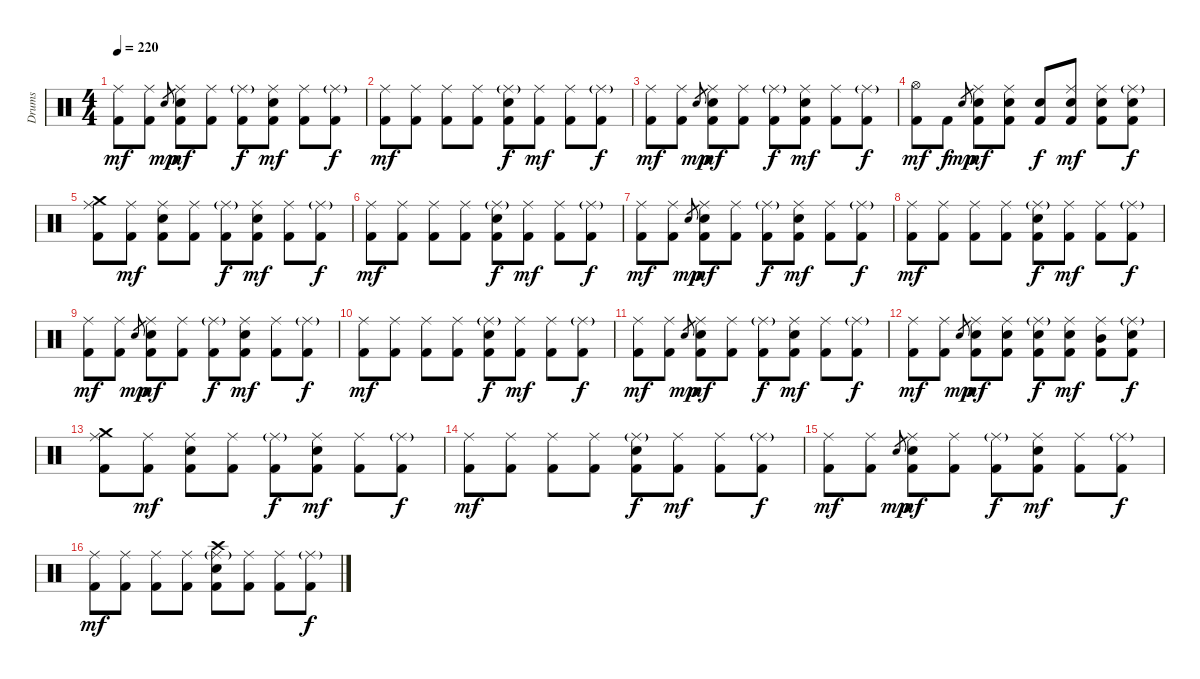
\bracketExtendMode groupsimilarinstruments
\otherSystemsTrackNameOrientation horizontal
\track ("Drumkit" "Drums") {instrument percussion}
\staff {score}
\articulation defaults
\ts (4 4)
\tempo 220
\clef neutral
\ks c
("Ride (middle)" "Kick (hit) 2").8{dy mf beam Down} ("Ride (middle)" "Kick (hit) 2").8{beam Down} "Snare (hit) 2".8{gr dy mp beam Up} ("Ride (middle)" "Snare (hit) 2" "Kick (hit) 2").8{dy mf beam Down} ("Ride (middle)" "Kick (hit) 2").8{beam Down} ("Ride (middle)"{g} "Kick (hit) 2").8{dy f beam Down} ("Ride (middle)" "Snare (hit) 2" "Kick (hit) 2").8{dy mf beam Down} ("Ride (middle)" "Kick (hit) 2").8{beam Down} ("Ride (middle)"{g} "Kick (hit) 2").8{dy f beam Down} |
("Ride (middle)" "Kick (hit) 2").8{dy mf beam Down} ("Ride (middle)" "Kick (hit) 2").8{beam Down} ("Ride (middle)" "Kick (hit) 2").8{beam Down} ("Ride (middle)" "Kick (hit) 2").8{beam Down} ("Ride (middle)"{g} "Snare (hit) 2" "Kick (hit) 2").8{dy f beam Down} ("Ride (middle)" "Kick (hit) 2").8{dy mf beam Down} ("Ride (middle)" "Kick (hit) 2").8{beam Down} ("Ride (middle)"{g} "Kick (hit) 2").8{dy f beam Down} |
("Ride (middle)" "Kick (hit) 2").8{dy mf beam Down} ("Ride (middle)" "Kick (hit) 2").8{beam Down} "Snare (hit) 2".8{gr dy mp beam Up} ("Ride (middle)" "Snare (hit) 2" "Kick (hit) 2").8{dy mf beam Down} ("Ride (middle)" "Kick (hit) 2").8{beam Down} ("Ride (middle)"{g} "Kick (hit) 2").8{dy f beam Down} ("Ride (middle)" "Snare (hit) 2" "Kick (hit) 2").8{dy mf beam Down} ("Ride (middle)" "Kick (hit) 2").8{beam Down} ("Ride (middle)"{g} "Kick (hit) 2").8{dy f beam Down} |
("Hi-Hat (open)" "Kick (hit) 2").8{dy mf beam Down} "Kick (hit) 2".8{dy f beam Down} "Snare (hit) 2".8{gr dy mp beam Up} ("Ride (middle)" "Snare (hit) 2" "Kick (hit) 2").8{dy mf beam Down} ("Ride (middle)" "Snare (hit) 2" "Kick (hit) 2").8{beam Down} ("Snare (hit) 2" "Kick (hit) 2").8{dy f beam Up} ("Ride (middle)" "Snare (hit) 2" "Kick (hit) 2").8{dy mf beam Up} ("Ride (middle)" "Snare (hit) 2" "Kick (hit) 2").8{beam Down} ("Ride (middle)"{g} "Snare (hit) 2" "Kick (hit) 2").8{dy f beam Down} |
("Crash medium (hit)" "Ride (middle)" "Kick (hit) 2").8{beam Down} ("Ride (middle)" "Kick (hit) 2").8{dy mf beam Down} ("Ride (middle)" "Snare (hit) 2" "Kick (hit) 2").8{beam Down} ("Ride (middle)" "Kick (hit) 2").8{beam Down} ("Ride (middle)"{g} "Kick (hit) 2").8{dy f beam Down} ("Ride (middle)" "Snare (hit) 2" "Kick (hit) 2").8{dy mf beam Down} ("Ride (middle)" "Kick (hit) 2").8{beam Down} ("Ride (middle)"{g} "Kick (hit) 2").8{dy f beam Down} |
("Ride (middle)" "Kick (hit) 2").8{dy mf beam Down} ("Ride (middle)" "Kick (hit) 2").8{beam Down} ("Ride (middle)" "Kick (hit) 2").8{beam Down} ("Ride (middle)" "Kick (hit) 2").8{beam Down} ("Ride (middle)"{g} "Snare (hit) 2" "Kick (hit) 2").8{dy f beam Down} ("Ride (middle)" "Kick (hit) 2").8{dy mf beam Down} ("Ride (middle)" "Kick (hit) 2").8{beam Down} ("Ride (middle)"{g} "Kick (hit) 2").8{dy f beam Down} |
("Ride (middle)" "Kick (hit) 2").8{dy mf beam Down} ("Ride (middle)" "Kick (hit) 2").8{beam Down} "Snare (hit) 2".8{gr dy mp beam Up} ("Ride (middle)" "Snare (hit) 2" "Kick (hit) 2").8{dy mf beam Down} ("Ride (middle)" "Kick (hit) 2").8{beam Down} ("Ride (middle)"{g} "Kick (hit) 2").8{dy f beam Down} ("Ride (middle)" "Snare (hit) 2" "Kick (hit) 2").8{dy mf beam Down} ("Ride (middle)" "Kick (hit) 2").8{beam Down} ("Ride (middle)"{g} "Kick (hit) 2").8{dy f beam Down} |
("Ride (middle)" "Kick (hit) 2").8{dy mf beam Down} ("Ride (middle)" "Kick (hit) 2").8{beam Down} ("Ride (middle)" "Kick (hit) 2").8{beam Down} ("Ride (middle)" "Kick (hit) 2").8{beam Down} ("Ride (middle)"{g} "Snare (hit) 2" "Kick (hit) 2").8{dy f beam Down} ("Ride (middle)" "Kick (hit) 2").8{dy mf beam Down} ("Ride (middle)" "Kick (hit) 2").8{beam Down} ("Ride (middle)"{g} "Kick (hit) 2").8{dy f beam Down} |
("Ride (middle)" "Kick (hit) 2").8{dy mf beam Down} ("Ride (middle)" "Kick (hit) 2").8{beam Down} "Snare (hit) 2".8{gr dy mp beam Up} ("Ride (middle)" "Snare (hit) 2" "Kick (hit) 2").8{dy mf beam Down} ("Ride (middle)" "Kick (hit) 2").8{beam Down} ("Ride (middle)"{g} "Kick (hit) 2").8{dy f beam Down} ("Ride (middle)" "Snare (hit) 2" "Kick (hit) 2").8{dy mf beam Down} ("Ride (middle)" "Kick (hit) 2").8{beam Down} ("Ride (middle)"{g} "Kick (hit) 2").8{dy f beam Down} |
("Ride (middle)" "Kick (hit) 2").8{dy mf beam Down} ("Ride (middle)" "Kick (hit) 2").8{beam Down} ("Ride (middle)" "Kick (hit) 2").8{beam Down} ("Ride (middle)" "Kick (hit) 2").8{beam Down} ("Ride (middle)"{g} "Snare (hit) 2" "Kick (hit) 2").8{dy f beam Down} ("Ride (middle)" "Kick (hit) 2").8{dy mf beam Down} ("Ride (middle)" "Kick (hit) 2").8{beam Down} ("Ride (middle)"{g} "Kick (hit) 2").8{dy f beam Down} |
("Ride (middle)" "Kick (hit) 2").8{dy mf beam Down} ("Ride (middle)" "Kick (hit) 2").8{beam Down} "Snare (hit) 2".8{gr dy mp beam Up} ("Ride (middle)" "Snare (hit) 2" "Kick (hit) 2").8{dy mf beam Down} ("Ride (middle)" "Kick (hit) 2").8{beam Down} ("Ride (middle)"{g} "Kick (hit) 2").8{dy f beam Down} ("Ride (middle)" "Snare (hit) 2" "Kick (hit) 2").8{dy mf beam Down} ("Ride (middle)" "Kick (hit) 2").8{beam Down} ("Ride (middle)"{g} "Kick (hit) 2").8{dy f beam Down} |
("Ride (middle)" "Kick (hit) 2").8{dy mf beam Down} ("Ride (middle)" "Kick (hit) 2").8{beam Down} "Snare (hit) 2".8{gr dy mp beam Up} ("Ride (middle)" "Snare (hit) 2" "Kick (hit) 2").8{dy mf beam Down} ("Ride (middle)" "Snare (hit) 2" "Kick (hit) 2").8{beam Down} ("Ride (middle)"{g} "Snare (hit) 2" "Kick (hit) 2").8{dy f beam Down} ("Ride (middle)" "Snare (hit) 2" "Kick (hit) 2").8{dy mf beam Down} ("Ride (middle)" "Mid Tom (hit)" "Kick (hit) 2").8{beam Down} ("Ride (middle)"{g} "Snare (hit) 2" "Kick (hit) 2").8{dy f beam Down} |
("Crash medium (hit)" "Ride (middle)" "Kick (hit) 2").8{beam Down} ("Ride (middle)" "Kick (hit) 2").8{dy mf beam Down} ("Ride (middle)" "Snare (hit) 2" "Kick (hit) 2").8{beam Down} ("Ride (middle)" "Kick (hit) 2").8{beam Down} ("Ride (middle)"{g} "Kick (hit) 2").8{dy f beam Down} ("Ride (middle)" "Snare (hit) 2" "Kick (hit) 2").8{dy mf beam Down} ("Ride (middle)" "Kick (hit) 2").8{beam Down} ("Ride (middle)"{g} "Kick (hit) 2").8{dy f beam Down} |
("Ride (middle)" "Kick (hit) 2").8{dy mf beam Down} ("Ride (middle)" "Kick (hit) 2").8{beam Down} ("Ride (middle)" "Kick (hit) 2").8{beam Down} ("Ride (middle)" "Kick (hit) 2").8{beam Down} ("Ride (middle)"{g} "Snare (hit) 2" "Kick (hit) 2").8{dy f beam Down} ("Ride (middle)" "Kick (hit) 2").8{dy mf beam Down} ("Ride (middle)" "Kick (hit) 2").8{beam Down} ("Ride (middle)"{g} "Kick (hit) 2").8{dy f beam Down} |
("Ride (middle)" "Kick (hit) 2").8{dy mf beam Down} ("Ride (middle)" "Kick (hit) 2").8{beam Down} "Snare (hit) 2".8{gr dy mp beam Up} ("Ride (middle)" "Snare (hit) 2" "Kick (hit) 2").8{dy mf beam Down} ("Ride (middle)" "Kick (hit) 2").8{beam Down} ("Ride (middle)"{g} "Kick (hit) 2").8{dy f beam Down} ("Ride (middle)" "Snare (hit) 2" "Kick (hit) 2").8{dy mf beam Down} ("Ride (middle)" "Kick (hit) 2").8{beam Down} ("Ride (middle)"{g} "Kick (hit) 2").8{dy f beam Down} |
("Ride (middle)" "Kick (hit) 2").8{dy mf beam Down} ("Ride (middle)" "Kick (hit) 2").8{beam Down} ("Ride (middle)" "Kick (hit) 2").8{beam Down} ("Ride (middle)" "Kick (hit) 2").8{beam Down} ("Crash high (hit)" "Ride (middle)"{g} "Snare (hit) 2" "Kick (hit) 2").8{beam Down} ("Ride (middle)" "Kick (hit) 2").8{beam Down} ("Ride (middle)" "Kick (hit) 2").8{beam Down} ("Ride (middle)"{g} "Kick (hit) 2").8{dy f beam Down}
